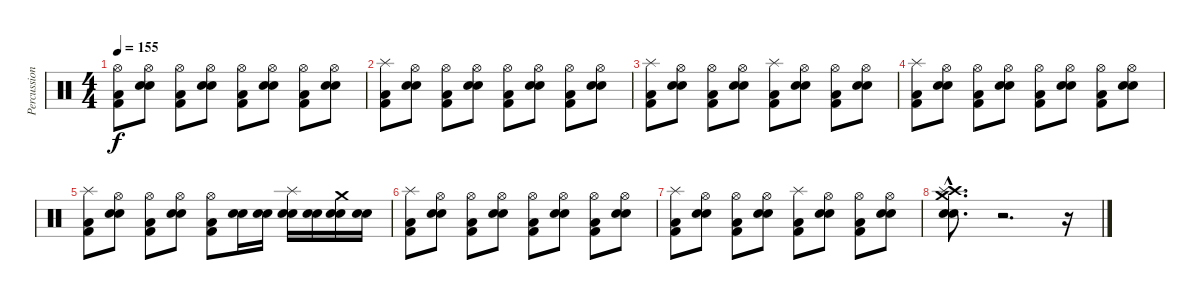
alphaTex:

\track ("Percussions" "Percussion") {instrument percussion}
\staff {score}
\articulation defaults
\ts (4 4)
\tempo 155
\clef neutral
\ks c
("Hi-Hat (open)" "Kick (hit) 2" "Low Floor Tom (hit)").8{dy f} ("Hi-Hat (open)" "Snare (hit) 2" "Snare (hit) 2").8 ("Hi-Hat (open)" "Kick (hit) 2" "Low Floor Tom (hit)").8 ("Hi-Hat (open)" "Snare (hit) 2" "Snare (hit) 2").8 ("Hi-Hat (open)" "Kick (hit) 2" "Low Floor Tom (hit)").8 ("Hi-Hat (open)" "Snare (hit) 2" "Snare (hit) 2").8 ("Hi-Hat (open)" "Kick (hit) 2" "Low Floor Tom (hit)").8 ("Hi-Hat (open)" "Snare (hit) 2" "Snare (hit) 2").8 |
("Splash (hit)" "Kick (hit) 2" "Low Floor Tom (hit)").8 ("Hi-Hat (open)" "Snare (hit) 2" "Snare (hit) 2").8 ("Hi-Hat (open)" "Kick (hit) 2" "Low Floor Tom (hit)").8 ("Hi-Hat (open)" "Snare (hit) 2" "Snare (hit) 2").8 ("Hi-Hat (open)" "Kick (hit) 2" "Low Floor Tom (hit)").8 ("Hi-Hat (open)" "Snare (hit) 2" "Snare (hit) 2").8 ("Hi-Hat (open)" "Kick (hit) 2" "Low Floor Tom (hit)").8 ("Hi-Hat (open)" "Snare (hit) 2" "Snare (hit) 2").8 |
("Splash (hit)" "Kick (hit) 2" "Low Floor Tom (hit)").8 ("Hi-Hat (open)" "Snare (hit) 2" "Snare (hit) 2").8 ("Hi-Hat (open)" "Kick (hit) 2" "Low Floor Tom (hit)").8 ("Hi-Hat (open)" "Snare (hit) 2" "Snare (hit) 2").8 ("Splash (hit)" "Kick (hit) 2" "Low Floor Tom (hit)").8 ("Hi-Hat (open)" "Snare (hit) 2" "Snare (hit) 2").8 ("Hi-Hat (open)" "Kick (hit) 2" "Low Floor Tom (hit)").8 ("Hi-Hat (open)" "Snare (hit) 2" "Snare (hit) 2").8 |
("Splash (hit)" "Kick (hit) 2" "Low Floor Tom (hit)").8 ("Hi-Hat (open)" "Snare (hit) 2" "Snare (hit) 2").8 ("Hi-Hat (open)" "Kick (hit) 2" "Low Floor Tom (hit)").8 ("Hi-Hat (open)" "Snare (hit) 2" "Snare (hit) 2").8 ("Hi-Hat (open)" "Kick (hit) 2" "Low Floor Tom (hit)").8 ("Hi-Hat (open)" "Snare (hit) 2" "Snare (hit) 2").8 ("Hi-Hat (open)" "Kick (hit) 2" "Low Floor Tom (hit)").8 ("Hi-Hat (open)" "Snare (hit) 2" "Snare (hit) 2").8 |
("Splash (hit)" "Kick (hit) 2" "Low Floor Tom (hit)").8 ("Hi-Hat (open)" "Snare (hit) 2" "Snare (hit) 2").8 ("Hi-Hat (open)" "Kick (hit) 2" "Low Floor Tom (hit)").8 ("Hi-Hat (open)" "Snare (hit) 2" "Snare (hit) 2").8 ("Hi-Hat (open)" "Kick (hit) 2" "Low Floor Tom (hit)").8 ("Snare (hit) 2" "Snare (hit) 2").16 ("Snare (hit) 2" "Snare (hit) 2").16 ("Splash (hit)" "Snare (hit) 2" "Snare (hit) 2").16 ("Snare (hit) 2" "Snare (hit) 2").16 ("Crash medium (hit)" "Snare (hit) 2" "Snare (hit) 2").16 ("Snare (hit) 2" "Snare (hit) 2").16 |
("Splash (hit)" "Kick (hit) 2" "Low Floor Tom (hit)").8 ("Hi-Hat (open)" "Snare (hit) 2" "Snare (hit) 2").8 ("Hi-Hat (open)" "Kick (hit) 2" "Low Floor Tom (hit)").8 ("Hi-Hat (open)" "Snare (hit) 2" "Snare (hit) 2").8 ("Hi-Hat (open)" "Kick (hit) 2" "Low Floor Tom (hit)").8 ("Hi-Hat (open)" "Snare (hit) 2" "Snare (hit) 2").8 ("Hi-Hat (open)" "Kick (hit) 2" "Low Floor Tom (hit)").8 ("Hi-Hat (open)" "Snare (hit) 2" "Snare (hit) 2").8 |
("Splash (hit)" "Kick (hit) 2" "Low Floor Tom (hit)").8 ("Hi-Hat (open)" "Snare (hit) 2" "Snare (hit) 2").8 ("Hi-Hat (open)" "Kick (hit) 2" "Low Floor Tom (hit)").8 ("Hi-Hat (open)" "Snare (hit) 2" "Snare (hit) 2").8 ("Splash (hit)" "Kick (hit) 2" "Low Floor Tom (hit)").8 ("Hi-Hat (open)" "Snare (hit) 2" "Snare (hit) 2").8 ("Hi-Hat (open)" "Kick (hit) 2" "Low Floor Tom (hit)").8 ("Hi-Hat (open)" "Snare (hit) 2" "Snare (hit) 2").8 |
("Crash high (hit)"{hac} "Splash (hit)"{hac} "Crash medium (hit)"{hac} "Snare (hit) 2"{hac} "Snare (hit) 2"{hac}).8{d} r.2{d} r.16
